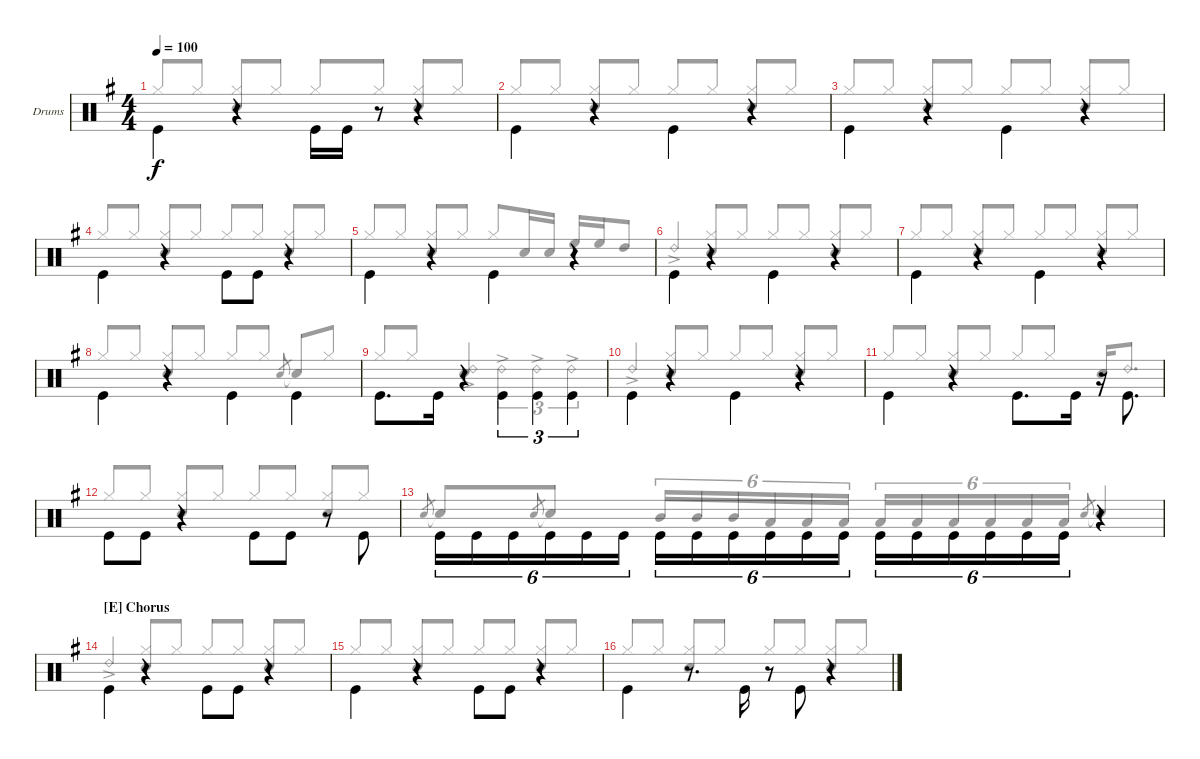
\defaultSystemsLayout 4
\bracketExtendMode groupsimilarinstruments
\firstSystemTrackNameOrientation horizontal
\otherSystemsTrackNameOrientation horizontal
\track ("Drumkit" "Drums") {instrument percussion}
\staff {score}
\articulation defaults
\voice
\ts (4 4)
\tempo 100
\clef neutral
\scale
1.02648
\ks g "Kick (hit)".4{dy f beam invert}
r.4 "Kick (hit)".16{beam invert} "Kick (hit)".16 r.8{beam invert} r.4{beam invert} |
\scale
0.973518 "Kick (hit)".4{beam invert} r.4{beam invert} "Kick (hit)".4{beam invert} r.4{beam invert} |
\scale
1.02648 "Kick (hit)".4{beam invert} r.4{beam invert} "Kick (hit)".4{beam invert} r.4{beam invert} |
\scale
0.973518 "Kick (hit)".4{beam invert} r.4{beam invert} "Kick (hit)".8{beam invert} "Kick (hit)".8 r.4{beam invert} |
\scale
1.02648 "Kick (hit)".4{beam invert} r.4{beam invert} "Kick (hit)".4{beam invert} r.4{beam invert} |
\scale
0.973518 "Kick (hit)".4{beam invert} r.4{beam invert} "Kick (hit)".4{beam invert} r.4{beam invert} |
\scale
1.02648 "Kick (hit)".4{beam invert} r.4{beam invert} "Kick (hit)".4{beam invert} r.4{beam invert} |
\scale
0.973518 "Kick (hit)".4{beam invert} r.4 "Kick (hit)".4{beam invert} "Kick (hit)".4{beam invert} |
\scale
1.02648 "Kick (hit)".8{d beam invert} "Kick (hit)".16 r.4 "Kick (hit)".4{tu (3 2) beam invert} "Kick (hit)".4{tu (3 2) beam invert} "Kick (hit)".4{tu (3 2) beam invert} |
\scale
0.973518 "Kick (hit)".4{beam invert} r.4{beam invert} "Kick (hit)".4{beam invert} r.4{beam invert} |
\scale
1.02648 "Kick (hit)".4{beam invert} r.4 "Kick (hit)".8{d beam invert} "Kick (hit)".16 r.16{beam invert} "Kick (hit)".8{d beam invert} |
\scale
0.973518 "Kick (hit)".8{beam invert} "Kick (hit)".8 r.4{beam invert} "Kick (hit)".8{beam invert} "Kick (hit)".8 r.8{beam invert} "Kick (hit)".8{beam invert} |
\scale
1.02648 "Kick (hit)".16{tu (6 4) beam invert} "Kick (hit)".16{tu (6 4)} "Kick (hit)".16{tu (6 4)} "Kick (hit)".16{tu (6 4)} "Kick (hit)".16{tu (6 4)} "Kick (hit)".16{tu (6 4)} "Kick (hit)".16{tu (6 4) beam invert} "Kick (hit)".16{tu (6 4)} "Kick (hit)".16{tu (6 4)} "Kick (hit)".16{tu (6 4)} "Kick (hit)".16{tu (6 4)} "Kick (hit)".16{tu (6 4)} "Kick (hit)".16{tu (6 4) beam invert} "Kick (hit)".16{tu (6 4)} "Kick (hit)".16{tu (6 4)} "Kick (hit)".16{tu (6 4)} "Kick (hit)".16{tu (6 4)} "Kick (hit)".16{tu (6 4)} r.4{beam invert} |
\section ("E" "Chorus")
\scale
0.973518 "Kick (hit)".4{beam invert} r.4{beam invert} "Kick (hit)".8{beam invert} "Kick (hit)".8 r.4 |
\scale
1.02648 "Kick (hit)".4{beam invert} r.4{beam invert} "Kick (hit)".8{beam invert} "Kick (hit)".8 r.4 |
\scale
0.973518 "Kick (hit)".4{beam invert} r.8{d beam invert} "Kick (hit)".16{beam invert} r.8{beam invert} "Kick (hit)".8{beam invert} r.4{beam invert}
\voice
\clef neutral
\ottava regular
\simile none
\scale
1.02648
\ks g "Hi-Hat (closed)".8{dy f beam invert} "Hi-Hat (closed)".8
("Hi-Hat (closed)" "Snare (hit) 2").8{beam invert} "Hi-Hat (closed)".8 "Hi-Hat (closed)".8{beam invert} "Hi-Hat (closed)".8 ("Hi-Hat (closed)" "Snare (hit) 2").8{beam invert} "Hi-Hat (closed)".8 |
\scale
0.973518 "Hi-Hat (closed)".8{beam invert} "Hi-Hat (closed)".8 ("Hi-Hat (closed)" "Snare (hit) 2").8{beam invert} "Hi-Hat (closed)".8 "Hi-Hat (closed)".8{beam invert} "Hi-Hat (closed)".8 ("Hi-Hat (closed)" "Snare (hit) 2").8{beam invert} "Hi-Hat (closed)".8 |
\scale
1.02648 "Hi-Hat (closed)".8{beam invert} "Hi-Hat (closed)".8 ("Hi-Hat (closed)" "Snare (hit) 2").8{beam invert} "Hi-Hat (closed)".8 "Hi-Hat (closed)".8{beam invert} "Hi-Hat (closed)".8 ("Hi-Hat (closed)" "Snare (hit) 2").8{beam invert} "Hi-Hat (closed)".8 |
\scale
0.973518 "Hi-Hat (closed)".8{beam invert} "Hi-Hat (closed)".8 ("Hi-Hat (closed)" "Snare (hit) 2").8{beam invert} "Hi-Hat (closed)".8 "Hi-Hat (closed)".8{beam invert} "Hi-Hat (closed)".8 ("Hi-Hat (closed)" "Snare (hit) 2").8{beam invert} "Hi-Hat (closed)".8 |
\scale
1.02648 "Hi-Hat (closed)".8{beam invert} "Hi-Hat (closed)".8 ("Hi-Hat (closed)" "Snare (hit) 2").8{beam invert} "Hi-Hat (closed)".8 "Hi-Hat (closed)".8{beam invert} "Snare (hit) 2".16 "Snare (hit) 2".16 "High Floor Tom (hit)".16 "High Floor Tom (hit)".16{beam invert} "High Tom (hit)".8 |
\scale
0.973518 "Ride (bell) 2"{ac}.4{beam invert} ("Hi-Hat (closed)" "Snare (hit) 2").8{beam invert} "Hi-Hat (closed)".8 "Hi-Hat (closed)".8{beam invert} "Hi-Hat (closed)".8 ("Hi-Hat (closed)" "Snare (hit) 2").8{beam invert} "Hi-Hat (closed)".8 |
\scale
1.02648 "Hi-Hat (closed)".8{beam invert} "Hi-Hat (closed)".8 ("Hi-Hat (closed)" "Snare (hit) 2").8 "Hi-Hat (closed)".8{beam invert} "Hi-Hat (closed)".8 "Hi-Hat (closed)".8{beam invert} ("Hi-Hat (closed)" "Snare (hit) 2").8 "Hi-Hat (closed)".8{beam invert} |
\scale
0.973518 "Hi-Hat (closed)".8{beam invert} "Hi-Hat (closed)".8 ("Hi-Hat (closed)" "Snare (hit) 2").8 "Hi-Hat (closed)".8{beam invert} "Hi-Hat (closed)".8 "Hi-Hat (closed)".8{beam invert} "Snare (hit) 2".8{gr beam invert} "Snare (hit) 2"{t}.8 "Hi-Hat (closed)".8{beam invert} |
\scale
1.02648 "Hi-Hat (closed)".8{beam invert} "Hi-Hat (closed)".8 ("Ride (bell) 2"{ac} "Snare (hit) 2").4{beam invert} "Ride (bell) 2"{ac}.4{tu (3 2)} "Ride (bell) 2"{ac}.4{tu (3 2)} "Ride (bell) 2"{ac}.4{tu (3 2)} |
\scale
0.973518 "Ride (bell) 2"{ac}.4{beam invert} ("Hi-Hat (closed)" "Snare (hit) 2").8{beam invert} "Hi-Hat (closed)".8 "Hi-Hat (closed)".8{beam invert} "Hi-Hat (closed)".8 ("Hi-Hat (closed)" "Snare (hit) 2").8{beam invert} "Hi-Hat (closed)".8 |
\scale
1.02648 "Hi-Hat (closed)".8{beam invert} "Hi-Hat (closed)".8 ("Hi-Hat (closed)" "Snare (hit) 2").8 "Hi-Hat (closed)".8{beam invert} "Hi-Hat (closed)".8 "Hi-Hat (closed)".8{beam invert} "Snare (hit) 2".16{beam invert} "Ride (bell) 2".8{d} |
\scale
0.973518 "Hi-Hat (closed)".8{beam invert} "Hi-Hat (closed)".8 ("Hi-Hat (closed)" "Snare (hit) 2").8 "Hi-Hat (closed)".8{beam invert} "Hi-Hat (closed)".8 "Hi-Hat (closed)".8{beam invert} ("Hi-Hat (closed)" "Snare (hit) 2").8 "Hi-Hat (closed)".8{beam invert} |
\scale
1.02648 "Snare (hit) 2".8{gr beam invert} "Snare (hit) 2"{t}.8{beam invert} "Snare (hit) 2".8{gr beam invert} "Snare (hit) 2"{t}.8{beam invert} "Mid Tom (hit)".16{tu (6 4) beam invert} "Mid Tom (hit)".16{tu (6 4)} "Mid Tom (hit)".16{tu (6 4)} "Low Tom (hit)".16{tu (6 4)} "Low Tom (hit)".16{tu (6 4)} "Low Tom (hit)".16{tu (6 4)} "Low Tom (hit)".16{tu (6 4) beam invert} "Low Tom (hit)".16{tu (6 4)} "Low Tom (hit)".16{tu (6 4)} "Low Tom (hit)".16{tu (6 4)} "Low Tom (hit)".16{tu (6 4)} "Low Tom (hit)".16{tu (6 4)} "Snare (hit) 2".8{gr beam invert} "Snare (hit) 2"{t}.4{beam invert} |
\scale
0.973518 "Ride (bell) 2"{ac}.4{beam invert} ("Hi-Hat (closed)" "Snare (hit) 2").8{beam invert} "Hi-Hat (closed)".8 "Hi-Hat (closed)".8{beam invert} "Hi-Hat (closed)".8 ("Hi-Hat (closed)" "Snare (hit) 2").8{beam invert} "Hi-Hat (closed)".8 |
\scale
1.02648 "Hi-Hat (closed)".8{beam invert} "Hi-Hat (closed)".8 ("Hi-Hat (closed)" "Snare (hit) 2").8 "Hi-Hat (closed)".8{beam invert} "Hi-Hat (closed)".8 "Hi-Hat (closed)".8{beam invert} ("Hi-Hat (closed)" "Snare (hit) 2").8 "Hi-Hat (closed)".8{beam invert} |
\scale
0.973518 "Hi-Hat (closed)".8{beam invert} "Hi-Hat (closed)".8 ("Hi-Hat (closed)" "Snare (hit) 2").8 "Hi-Hat (closed)".8{beam invert} "Hi-Hat (closed)".8 "Hi-Hat (closed)".8{beam invert} ("Hi-Hat (closed)" "Snare (hit) 2").8 "Hi-Hat (closed)".8{beam invert}
